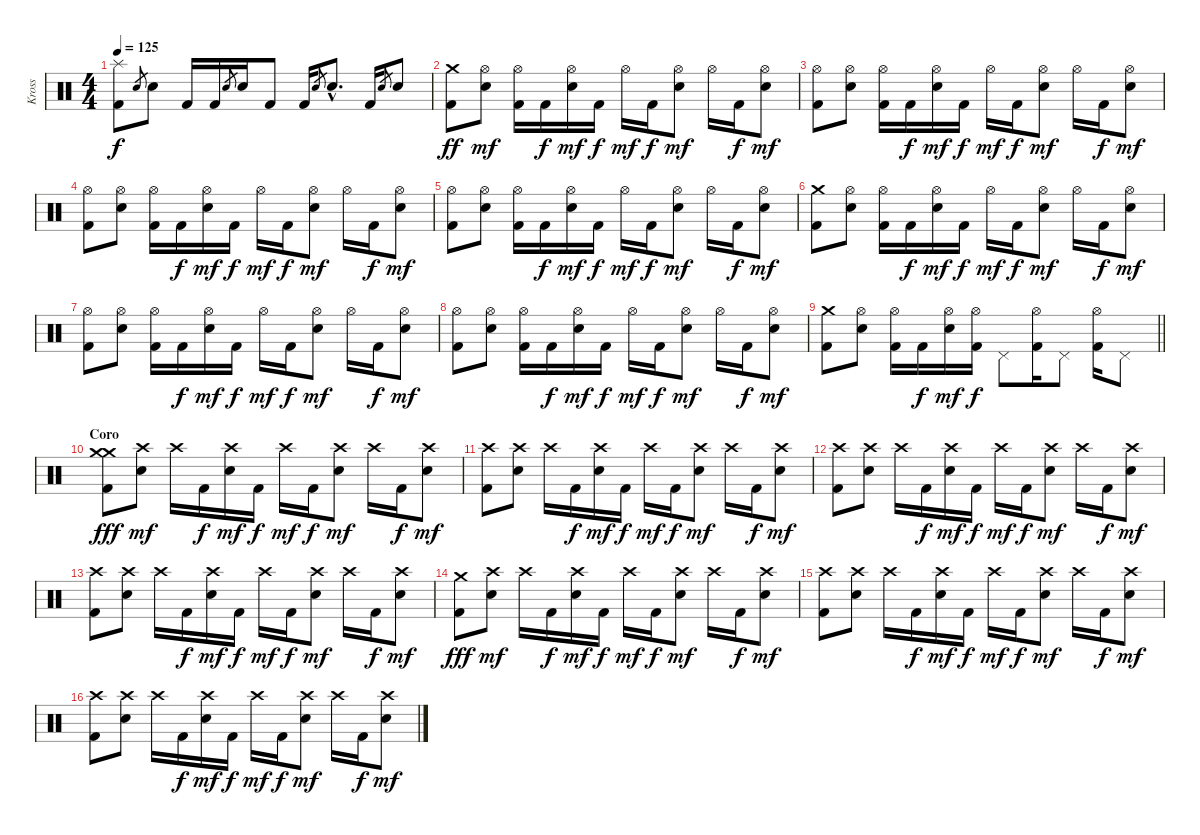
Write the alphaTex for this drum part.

\track ("Kross" "Kross") {instrument percussion}
\staff {score}
\articulation defaults
\ts (4 4)
\tempo 125
\clef neutral
\ks c
("Splash (hit)" "Kick (hit) 2").8{dy f} "Snare (hit) 2".8{gr} "Snare (hit) 2".8 "Kick (hit) 2".16 "Kick (hit) 2".16 "Snare (hit) 2".8{gr} "Snare (hit) 2".16 "Kick (hit) 2".8 "Kick (hit) 2".16 "Snare (hit) 2".8{gr} "Snare (hit) 2"{hac}.8{d} "Kick (hit) 2".16 "Snare (hit) 2".8{gr} "Snare (hit) 2".8 |
("Crash medium (hit)" "Kick (hit) 2").8{dy ff} ("Hi-Hat (open)" "Snare (hit) 2").8{dy mf} ("Hi-Hat (open)" "Kick (hit) 2").16 "Kick (hit) 2".16{dy f} ("Hi-Hat (open)" "Snare (hit) 2").16{dy mf} "Kick (hit) 2".16{dy f} "Hi-Hat (open)".16{dy mf} "Kick (hit) 2".16{dy f} ("Hi-Hat (open)" "Snare (hit) 2").8{dy mf} "Hi-Hat (open)".16 "Kick (hit) 2".16{dy f} ("Hi-Hat (open)" "Snare (hit) 2").8{dy mf} |
("Hi-Hat (open)" "Kick (hit) 2").8 ("Hi-Hat (open)" "Snare (hit) 2").8 ("Hi-Hat (open)" "Kick (hit) 2").16 "Kick (hit) 2".16{dy f} ("Hi-Hat (open)" "Snare (hit) 2").16{dy mf} "Kick (hit) 2".16{dy f} "Hi-Hat (open)".16{dy mf} "Kick (hit) 2".16{dy f} ("Hi-Hat (open)" "Snare (hit) 2").8{dy mf} "Hi-Hat (open)".16 "Kick (hit) 2".16{dy f} ("Hi-Hat (open)" "Snare (hit) 2").8{dy mf} |
("Hi-Hat (open)" "Kick (hit) 2").8 ("Hi-Hat (open)" "Snare (hit) 2").8 ("Hi-Hat (open)" "Kick (hit) 2").16 "Kick (hit) 2".16{dy f} ("Hi-Hat (open)" "Snare (hit) 2").16{dy mf} "Kick (hit) 2".16{dy f} "Hi-Hat (open)".16{dy mf} "Kick (hit) 2".16{dy f} ("Hi-Hat (open)" "Snare (hit) 2").8{dy mf} "Hi-Hat (open)".16 "Kick (hit) 2".16{dy f} ("Hi-Hat (open)" "Snare (hit) 2").8{dy mf} |
("Hi-Hat (open)" "Kick (hit) 2").8 ("Hi-Hat (open)" "Snare (hit) 2").8 ("Hi-Hat (open)" "Kick (hit) 2").16 "Kick (hit) 2".16{dy f} ("Hi-Hat (open)" "Snare (hit) 2").16{dy mf} "Kick (hit) 2".16{dy f} "Hi-Hat (open)".16{dy mf} "Kick (hit) 2".16{dy f} ("Hi-Hat (open)" "Snare (hit) 2").8{dy mf} "Hi-Hat (open)".16 "Kick (hit) 2".16{dy f} ("Hi-Hat (open)" "Snare (hit) 2").8{dy mf} |
("Crash medium (hit)" "Kick (hit) 2").8 ("Hi-Hat (open)" "Snare (hit) 2").8 ("Hi-Hat (open)" "Kick (hit) 2").16 "Kick (hit) 2".16{dy f} ("Hi-Hat (open)" "Snare (hit) 2").16{dy mf} "Kick (hit) 2".16{dy f} "Hi-Hat (open)".16{dy mf} "Kick (hit) 2".16{dy f} ("Hi-Hat (open)" "Snare (hit) 2").8{dy mf} "Hi-Hat (open)".16 "Kick (hit) 2".16{dy f} ("Hi-Hat (open)" "Snare (hit) 2").8{dy mf} |
("Hi-Hat (open)" "Kick (hit) 2").8 ("Hi-Hat (open)" "Snare (hit) 2").8 ("Hi-Hat (open)" "Kick (hit) 2").16 "Kick (hit) 2".16{dy f} ("Hi-Hat (open)" "Snare (hit) 2").16{dy mf} "Kick (hit) 2".16{dy f} "Hi-Hat (open)".16{dy mf} "Kick (hit) 2".16{dy f} ("Hi-Hat (open)" "Snare (hit) 2").8{dy mf} "Hi-Hat (open)".16 "Kick (hit) 2".16{dy f} ("Hi-Hat (open)" "Snare (hit) 2").8{dy mf} |
("Hi-Hat (open)" "Kick (hit) 2").8 ("Hi-Hat (open)" "Snare (hit) 2").8 ("Hi-Hat (open)" "Kick (hit) 2").16 "Kick (hit) 2".16{dy f} ("Hi-Hat (open)" "Snare (hit) 2").16{dy mf} "Kick (hit) 2".16{dy f} "Hi-Hat (open)".16{dy mf} "Kick (hit) 2".16{dy f} ("Hi-Hat (open)" "Snare (hit) 2").8{dy mf} "Hi-Hat (open)".16 "Kick (hit) 2".16{dy f} ("Hi-Hat (open)" "Snare (hit) 2").8{dy mf} |
\barLineRight lightlight
("Crash medium (hit)" "Kick (hit) 2").8 ("Hi-Hat (open)" "Snare (hit) 2").8 ("Hi-Hat (open)" "Kick (hit) 2").16 "Kick (hit) 2".16{dy f} ("Hi-Hat (open)" "Snare (hit) 2").16{dy mf} ("Hi-Hat (open)" "Kick (hit) 2").16{dy f} "Pedal Hi-Hat (hit)".8 ("Hi-Hat (open)" "Kick (hit) 2").16 "Pedal Hi-Hat (hit)".8 ("Hi-Hat (open)" "Kick (hit) 2").16 "Pedal Hi-Hat (hit)".8 |
\section ("" "Coro")
("Crash medium (hit)" "Crash medium (hit)" "Kick (hit) 2").8{dy fff} ("Crash high (hit)" "Snare (hit) 2").8{dy mf} "Crash high (hit)".16 "Kick (hit) 2".16{dy f} ("Crash high (hit)" "Snare (hit) 2").16{dy mf} "Kick (hit) 2".16{dy f} "Crash high (hit)".16{dy mf} "Kick (hit) 2".16{dy f} ("Crash high (hit)" "Snare (hit) 2").8{dy mf} "Crash high (hit)".16 "Kick (hit) 2".16{dy f} ("Crash high (hit)" "Snare (hit) 2").8{dy mf} |
("Crash high (hit)" "Kick (hit) 2").8 ("Crash high (hit)" "Snare (hit) 2").8 "Crash high (hit)".16 "Kick (hit) 2".16{dy f} ("Crash high (hit)" "Snare (hit) 2").16{dy mf} "Kick (hit) 2".16{dy f} "Crash high (hit)".16{dy mf} "Kick (hit) 2".16{dy f} ("Crash high (hit)" "Snare (hit) 2").8{dy mf} "Crash high (hit)".16 "Kick (hit) 2".16{dy f} ("Crash high (hit)" "Snare (hit) 2").8{dy mf} |
("Crash high (hit)" "Kick (hit) 2").8 ("Crash high (hit)" "Snare (hit) 2").8 "Crash high (hit)".16 "Kick (hit) 2".16{dy f} ("Crash high (hit)" "Snare (hit) 2").16{dy mf} "Kick (hit) 2".16{dy f} "Crash high (hit)".16{dy mf} "Kick (hit) 2".16{dy f} ("Crash high (hit)" "Snare (hit) 2").8{dy mf} "Crash high (hit)".16 "Kick (hit) 2".16{dy f} ("Crash high (hit)" "Snare (hit) 2").8{dy mf} |
("Crash high (hit)" "Kick (hit) 2").8 ("Crash high (hit)" "Snare (hit) 2").8 "Crash high (hit)".16 "Kick (hit) 2".16{dy f} ("Crash high (hit)" "Snare (hit) 2").16{dy mf} "Kick (hit) 2".16{dy f} "Crash high (hit)".16{dy mf} "Kick (hit) 2".16{dy f} ("Crash high (hit)" "Snare (hit) 2").8{dy mf} "Crash high (hit)".16 "Kick (hit) 2".16{dy f} ("Crash high (hit)" "Snare (hit) 2").8{dy mf} |
("Crash medium (hit)" "Kick (hit) 2").8{dy fff} ("Crash high (hit)" "Snare (hit) 2").8{dy mf} "Crash high (hit)".16 "Kick (hit) 2".16{dy f} ("Crash high (hit)" "Snare (hit) 2").16{dy mf} "Kick (hit) 2".16{dy f} "Crash high (hit)".16{dy mf} "Kick (hit) 2".16{dy f} ("Crash high (hit)" "Snare (hit) 2").8{dy mf} "Crash high (hit)".16 "Kick (hit) 2".16{dy f} ("Crash high (hit)" "Snare (hit) 2").8{dy mf} |
("Crash high (hit)" "Kick (hit) 2").8 ("Crash high (hit)" "Snare (hit) 2").8 "Crash high (hit)".16 "Kick (hit) 2".16{dy f} ("Crash high (hit)" "Snare (hit) 2").16{dy mf} "Kick (hit) 2".16{dy f} "Crash high (hit)".16{dy mf} "Kick (hit) 2".16{dy f} ("Crash high (hit)" "Snare (hit) 2").8{dy mf} "Crash high (hit)".16 "Kick (hit) 2".16{dy f} ("Crash high (hit)" "Snare (hit) 2").8{dy mf} |
("Crash high (hit)" "Kick (hit) 2").8 ("Crash high (hit)" "Snare (hit) 2").8 "Crash high (hit)".16 "Kick (hit) 2".16{dy f} ("Crash high (hit)" "Snare (hit) 2").16{dy mf} "Kick (hit) 2".16{dy f} "Crash high (hit)".16{dy mf} "Kick (hit) 2".16{dy f} ("Crash high (hit)" "Snare (hit) 2").8{dy mf} "Crash high (hit)".16 "Kick (hit) 2".16{dy f} ("Crash high (hit)" "Snare (hit) 2").8{dy mf}
